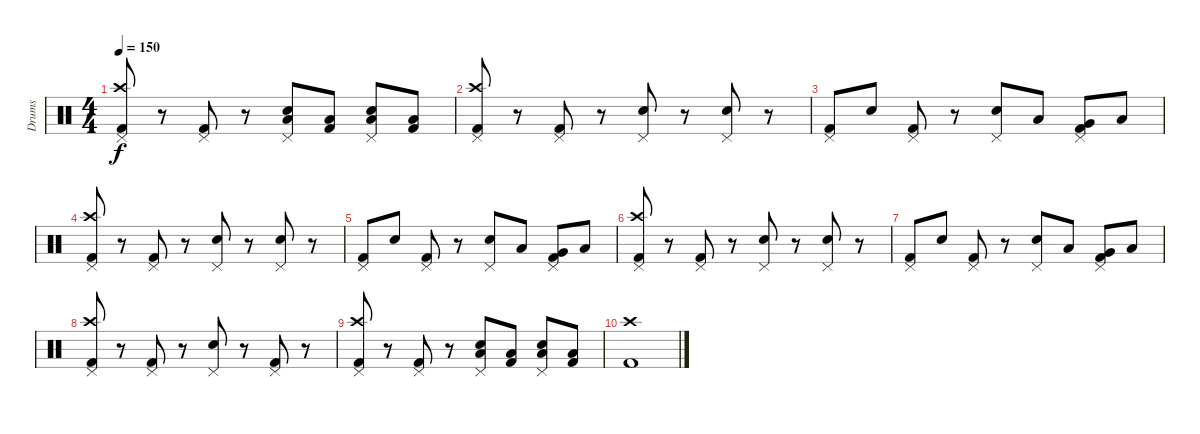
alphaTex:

\track ("Drums" "Drums") {instrument percussion}
\staff {score}
\articulation defaults
\ts (4 4)
\tempo 150
\clef neutral
\ks c
("Pedal Hi-Hat (hit)" "Crash high (hit)" "Kick (hit) 2").8{dy f} r.8 ("Pedal Hi-Hat (hit)" "Kick (hit) 2").8 r.8 ("Pedal Hi-Hat (hit)" "Low Floor Tom (hit)" "Electric Snare (hit)").8 ("Low Floor Tom (hit)" "Kick (hit) 2").8 ("Pedal Hi-Hat (hit)" "Low Floor Tom (hit)" "Electric Snare (hit)").8 ("Low Floor Tom (hit)" "Kick (hit) 2").8 |
("Pedal Hi-Hat (hit)" "Crash high (hit)" "Kick (hit) 2").8 r.8 ("Pedal Hi-Hat (hit)" "Kick (hit) 2").8 r.8 ("Pedal Hi-Hat (hit)" "Electric Snare (hit)").8 r.8 ("Pedal Hi-Hat (hit)" "Electric Snare (hit)").8 r.8 |
("Pedal Hi-Hat (hit)" "Kick (hit) 2").8 "Electric Snare (hit)".8 ("Pedal Hi-Hat (hit)" "Kick (hit) 2").8 r.8 ("Pedal Hi-Hat (hit)" "Electric Snare (hit)").8 "Low Tom (hit)".8 ("Pedal Hi-Hat (hit)" "Very Low Tom (hit)" "Kick (hit) 2").8 "Low Floor Tom (hit)".8 |
("Pedal Hi-Hat (hit)" "Crash high (hit)" "Kick (hit) 2").8 r.8 ("Pedal Hi-Hat (hit)" "Kick (hit) 2").8 r.8 ("Pedal Hi-Hat (hit)" "Electric Snare (hit)").8 r.8 ("Pedal Hi-Hat (hit)" "Electric Snare (hit)").8 r.8 |
("Pedal Hi-Hat (hit)" "Kick (hit) 2").8 "Electric Snare (hit)".8 ("Pedal Hi-Hat (hit)" "Kick (hit) 2").8 r.8 ("Pedal Hi-Hat (hit)" "Electric Snare (hit)").8 "Low Tom (hit)".8 ("Pedal Hi-Hat (hit)" "Very Low Tom (hit)" "Kick (hit) 2").8 "Low Floor Tom (hit)".8 |
("Pedal Hi-Hat (hit)" "Crash high (hit)" "Kick (hit) 2").8 r.8 ("Pedal Hi-Hat (hit)" "Kick (hit) 2").8 r.8 ("Pedal Hi-Hat (hit)" "Electric Snare (hit)").8 r.8 ("Pedal Hi-Hat (hit)" "Electric Snare (hit)").8 r.8 |
("Pedal Hi-Hat (hit)" "Kick (hit) 2").8 "Electric Snare (hit)".8 ("Pedal Hi-Hat (hit)" "Kick (hit) 2").8 r.8 ("Pedal Hi-Hat (hit)" "Electric Snare (hit)").8 "Low Tom (hit)".8 ("Pedal Hi-Hat (hit)" "Very Low Tom (hit)" "Kick (hit) 2").8 "Low Floor Tom (hit)".8 |
("Pedal Hi-Hat (hit)" "Crash high (hit)" "Kick (hit) 2").8 r.8 ("Pedal Hi-Hat (hit)" "Kick (hit) 2").8 r.8 ("Pedal Hi-Hat (hit)" "Electric Snare (hit)").8 r.8 ("Pedal Hi-Hat (hit)" "Kick (hit) 2").8 r.8 |
("Pedal Hi-Hat (hit)" "Crash high (hit)" "Kick (hit) 2").8 r.8 ("Pedal Hi-Hat (hit)" "Kick (hit) 2").8 r.8 ("Pedal Hi-Hat (hit)" "Low Floor Tom (hit)" "Electric Snare (hit)").8 ("Low Floor Tom (hit)" "Kick (hit) 2").8 ("Pedal Hi-Hat (hit)" "Low Floor Tom (hit)" "Electric Snare (hit)").8 ("Low Floor Tom (hit)" "Kick (hit) 2").8 |
("Crash high (hit)" "Kick (hit) 2").1
